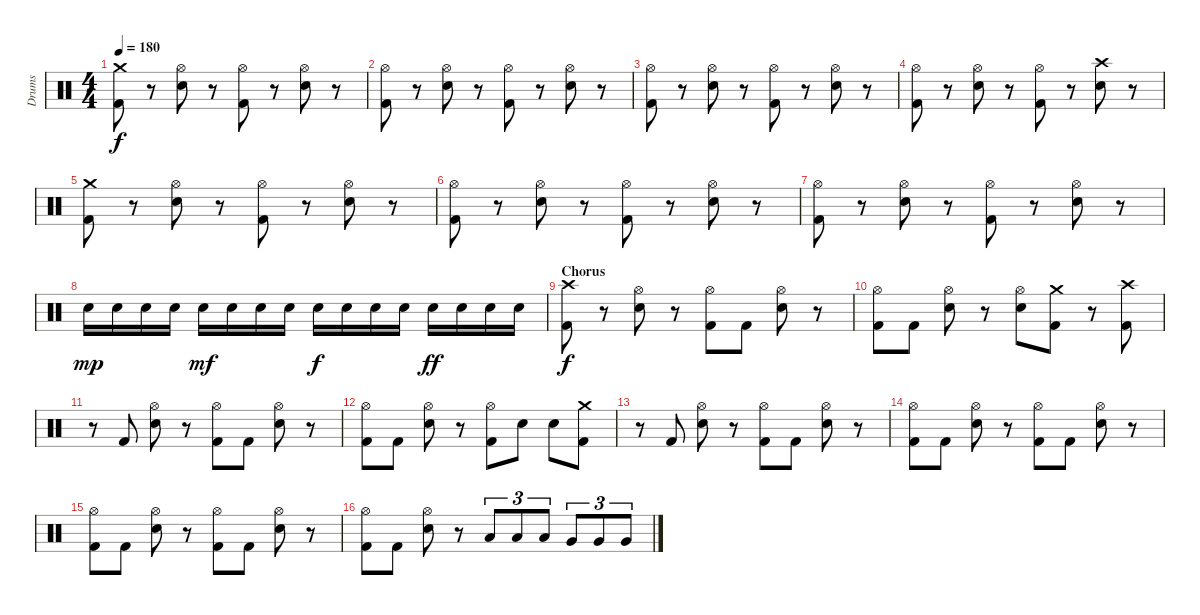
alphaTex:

\track ("Drums" "Drums") {instrument percussion}
\staff {score}
\articulation defaults
\ts (4 4)
\tempo 180
\clef neutral
\ks c
("Crash medium (hit)" "Kick (hit) 2").8{dy f} r.8 ("Hi-Hat (open)" "Snare (hit) 2").8 r.8 ("Hi-Hat (open)" "Kick (hit) 2").8 r.8 ("Hi-Hat (open)" "Snare (hit) 2").8 r.8 |
("Hi-Hat (open)" "Kick (hit) 2").8 r.8 ("Hi-Hat (open)" "Snare (hit) 2").8 r.8 ("Hi-Hat (open)" "Kick (hit) 2").8 r.8 ("Hi-Hat (open)" "Snare (hit) 2").8 r.8 |
("Hi-Hat (open)" "Kick (hit) 2").8 r.8 ("Hi-Hat (open)" "Snare (hit) 2").8 r.8 ("Hi-Hat (open)" "Kick (hit) 2").8 r.8 ("Hi-Hat (open)" "Snare (hit) 2").8 r.8 |
("Hi-Hat (open)" "Kick (hit) 2").8 r.8 ("Hi-Hat (open)" "Snare (hit) 2").8 r.8 ("Hi-Hat (open)" "Kick (hit) 2").8 r.8 ("Crash high (hit)" "Snare (hit) 2").8 r.8 |
("Crash medium (hit)" "Kick (hit) 2").8 r.8 ("Hi-Hat (open)" "Snare (hit) 2").8 r.8 ("Hi-Hat (open)" "Kick (hit) 2").8 r.8 ("Hi-Hat (open)" "Snare (hit) 2").8 r.8 |
("Hi-Hat (open)" "Kick (hit) 2").8 r.8 ("Hi-Hat (open)" "Snare (hit) 2").8 r.8 ("Hi-Hat (open)" "Kick (hit) 2").8 r.8 ("Hi-Hat (open)" "Snare (hit) 2").8 r.8 |
("Hi-Hat (open)" "Kick (hit) 2").8 r.8 ("Hi-Hat (open)" "Snare (hit) 2").8 r.8 ("Hi-Hat (open)" "Kick (hit) 2").8 r.8 ("Hi-Hat (open)" "Snare (hit) 2").8 r.8 |
"Snare (hit) 2".16{dy mp} "Snare (hit) 2".16 "Snare (hit) 2".16 "Snare (hit) 2".16 "Snare (hit) 2".16{dy mf} "Snare (hit) 2".16 "Snare (hit) 2".16 "Snare (hit) 2".16 "Snare (hit) 2".16{dy f} "Snare (hit) 2".16 "Snare (hit) 2".16 "Snare (hit) 2".16 "Snare (hit) 2".16{dy ff} "Snare (hit) 2".16 "Snare (hit) 2".16 "Snare (hit) 2".16 |
\section ("" "Chorus")
("Crash high (hit)" "Kick (hit) 2").8{dy f} r.8 ("Hi-Hat (open)" "Snare (hit) 2").8 r.8 ("Hi-Hat (open)" "Kick (hit) 2").8 "Kick (hit) 2".8 ("Hi-Hat (open)" "Snare (hit) 2").8 r.8 |
("Hi-Hat (open)" "Kick (hit) 2").8 "Kick (hit) 2".8 ("Hi-Hat (open)" "Snare (hit) 2").8 r.8 ("Hi-Hat (open)" "Snare (hit) 2").8 ("Crash medium (hit)" "Kick (hit) 2").8 r.8 ("Crash high (hit)" "Kick (hit) 2").8 |
r.8 "Kick (hit) 2".8 ("Hi-Hat (open)" "Snare (hit) 2").8 r.8 ("Hi-Hat (open)" "Kick (hit) 2").8 "Kick (hit) 2".8 ("Hi-Hat (open)" "Snare (hit) 2").8 r.8 |
("Hi-Hat (open)" "Kick (hit) 2").8 "Kick (hit) 2".8 ("Hi-Hat (open)" "Snare (hit) 2").8 r.8 ("Hi-Hat (open)" "Kick (hit) 2").8 "Snare (hit) 2".8 "Snare (hit) 2".8 ("Crash medium (hit)" "Kick (hit) 2").8 |
r.8 "Kick (hit) 2".8 ("Hi-Hat (open)" "Snare (hit) 2").8 r.8 ("Hi-Hat (open)" "Kick (hit) 2").8 "Kick (hit) 2".8 ("Hi-Hat (open)" "Snare (hit) 2").8 r.8 |
("Hi-Hat (open)" "Kick (hit) 2").8 "Kick (hit) 2".8 ("Hi-Hat (open)" "Snare (hit) 2").8 r.8 ("Hi-Hat (open)" "Kick (hit) 2").8 "Kick (hit) 2".8 ("Hi-Hat (open)" "Snare (hit) 2").8 r.8 |
("Hi-Hat (open)" "Kick (hit) 2").8 "Kick (hit) 2".8 ("Hi-Hat (open)" "Snare (hit) 2").8 r.8 ("Hi-Hat (open)" "Kick (hit) 2").8 "Kick (hit) 2".8 ("Hi-Hat (open)" "Snare (hit) 2").8 r.8 |
("Hi-Hat (open)" "Kick (hit) 2").8 "Kick (hit) 2".8 ("Hi-Hat (open)" "Snare (hit) 2").8 r.8 "Low Tom (hit)".8{tu (3 2)} "Low Tom (hit)".8{tu (3 2)} "Low Tom (hit)".8{tu (3 2)} "Very Low Tom (hit)".8{tu (3 2)} "Very Low Tom (hit)".8{tu (3 2)} "Very Low Tom (hit)".8{tu (3 2)}
